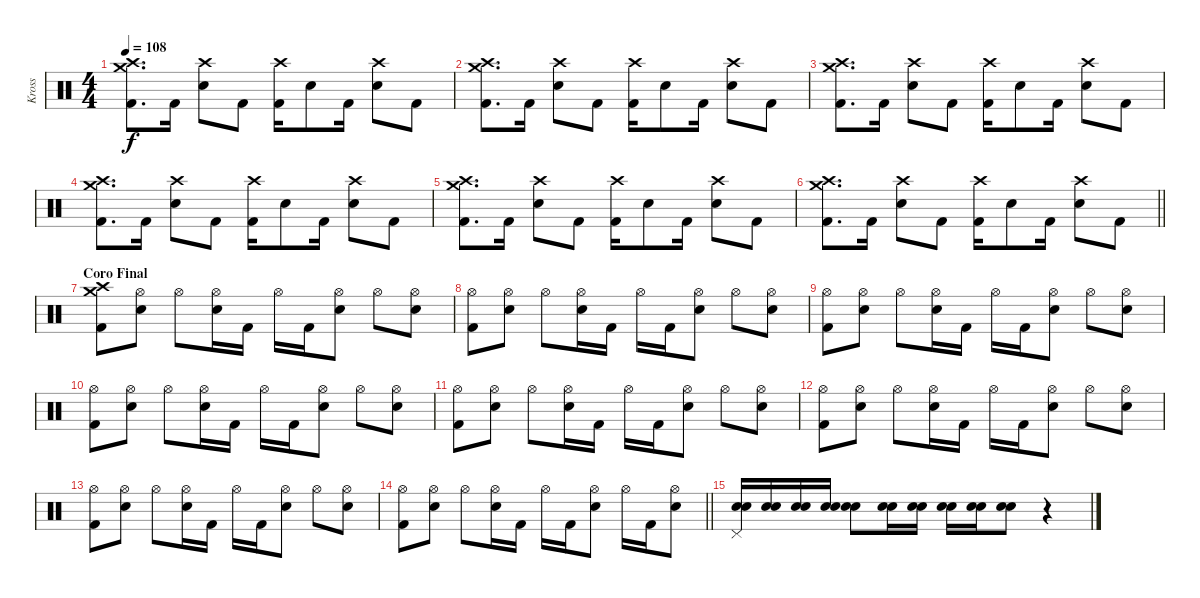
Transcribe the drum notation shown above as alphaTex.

\track ("Kross" "Kross") {instrument percussion}
\staff {score}
\articulation defaults
\ts (4 4)
\tempo 108
\clef neutral
\ks c
("Crash medium (hit)" "Crash high (hit)" "Kick (hit) 2").8{d dy f} "Kick (hit) 2".16 ("Crash high (hit)" "Electric Snare (hit)").8 "Kick (hit) 2".8 ("Crash high (hit)" "Kick (hit) 2").16 "Electric Snare (hit)".8 "Kick (hit) 2".16 ("Crash high (hit)" "Electric Snare (hit)").8 "Kick (hit) 2".8 |
("Crash medium (hit)" "Crash high (hit)" "Kick (hit) 2").8{d} "Kick (hit) 2".16 ("Crash high (hit)" "Electric Snare (hit)").8 "Kick (hit) 2".8 ("Crash high (hit)" "Kick (hit) 2").16 "Electric Snare (hit)".8 "Kick (hit) 2".16 ("Crash high (hit)" "Electric Snare (hit)").8 "Kick (hit) 2".8 |
("Crash medium (hit)" "Crash high (hit)" "Kick (hit) 2").8{d} "Kick (hit) 2".16 ("Crash high (hit)" "Electric Snare (hit)").8 "Kick (hit) 2".8 ("Crash high (hit)" "Kick (hit) 2").16 "Electric Snare (hit)".8 "Kick (hit) 2".16 ("Crash high (hit)" "Electric Snare (hit)").8 "Kick (hit) 2".8 |
("Crash medium (hit)" "Crash high (hit)" "Kick (hit) 2").8{d} "Kick (hit) 2".16 ("Crash high (hit)" "Electric Snare (hit)").8 "Kick (hit) 2".8 ("Crash high (hit)" "Kick (hit) 2").16 "Electric Snare (hit)".8 "Kick (hit) 2".16 ("Crash high (hit)" "Electric Snare (hit)").8 "Kick (hit) 2".8 |
("Crash medium (hit)" "Crash high (hit)" "Kick (hit) 2").8{d} "Kick (hit) 2".16 ("Crash high (hit)" "Electric Snare (hit)").8 "Kick (hit) 2".8 ("Crash high (hit)" "Kick (hit) 2").16 "Electric Snare (hit)".8 "Kick (hit) 2".16 ("Crash high (hit)" "Electric Snare (hit)").8 "Kick (hit) 2".8 |
\barLineRight lightlight
("Crash medium (hit)" "Crash high (hit)" "Kick (hit) 2").8{d} "Kick (hit) 2".16 ("Crash high (hit)" "Electric Snare (hit)").8 "Kick (hit) 2".8 ("Crash high (hit)" "Kick (hit) 2").16 "Electric Snare (hit)".8 "Kick (hit) 2".16 ("Crash high (hit)" "Electric Snare (hit)").8 "Kick (hit) 2".8 |
\section ("" "Coro Final")
("Crash medium (hit)" "Crash high (hit)" "Kick (hit) 2").8 ("Hi-Hat (open)" "Electric Snare (hit)").8 "Hi-Hat (open)".8 ("Hi-Hat (open)" "Electric Snare (hit)").16 "Kick (hit) 2".16 "Hi-Hat (open)".16 "Kick (hit) 2".16 ("Hi-Hat (open)" "Electric Snare (hit)").8 "Hi-Hat (open)".8 ("Hi-Hat (open)" "Electric Snare (hit)").8 |
("Hi-Hat (open)" "Kick (hit) 2").8 ("Hi-Hat (open)" "Electric Snare (hit)").8 "Hi-Hat (open)".8 ("Hi-Hat (open)" "Electric Snare (hit)").16 "Kick (hit) 2".16 "Hi-Hat (open)".16 "Kick (hit) 2".16 ("Hi-Hat (open)" "Electric Snare (hit)").8 "Hi-Hat (open)".8 ("Hi-Hat (open)" "Electric Snare (hit)").8 |
("Hi-Hat (open)" "Kick (hit) 2").8 ("Hi-Hat (open)" "Electric Snare (hit)").8 "Hi-Hat (open)".8 ("Hi-Hat (open)" "Electric Snare (hit)").16 "Kick (hit) 2".16 "Hi-Hat (open)".16 "Kick (hit) 2".16 ("Hi-Hat (open)" "Electric Snare (hit)").8 "Hi-Hat (open)".8 ("Hi-Hat (open)" "Electric Snare (hit)").8 |
("Hi-Hat (open)" "Kick (hit) 2").8 ("Hi-Hat (open)" "Electric Snare (hit)").8 "Hi-Hat (open)".8 ("Hi-Hat (open)" "Electric Snare (hit)").16 "Kick (hit) 2".16 "Hi-Hat (open)".16 "Kick (hit) 2".16 ("Hi-Hat (open)" "Electric Snare (hit)").8 "Hi-Hat (open)".8 ("Hi-Hat (open)" "Electric Snare (hit)").8 |
("Hi-Hat (open)" "Kick (hit) 2").8 ("Hi-Hat (open)" "Electric Snare (hit)").8 "Hi-Hat (open)".8 ("Hi-Hat (open)" "Electric Snare (hit)").16 "Kick (hit) 2".16 "Hi-Hat (open)".16 "Kick (hit) 2".16 ("Hi-Hat (open)" "Electric Snare (hit)").8 "Hi-Hat (open)".8 ("Hi-Hat (open)" "Electric Snare (hit)").8 |
("Hi-Hat (open)" "Kick (hit) 2").8 ("Hi-Hat (open)" "Electric Snare (hit)").8 "Hi-Hat (open)".8 ("Hi-Hat (open)" "Electric Snare (hit)").16 "Kick (hit) 2".16 "Hi-Hat (open)".16 "Kick (hit) 2".16 ("Hi-Hat (open)" "Electric Snare (hit)").8 "Hi-Hat (open)".8 ("Hi-Hat (open)" "Electric Snare (hit)").8 |
("Hi-Hat (open)" "Kick (hit) 2").8 ("Hi-Hat (open)" "Electric Snare (hit)").8 "Hi-Hat (open)".8 ("Hi-Hat (open)" "Electric Snare (hit)").16 "Kick (hit) 2".16 "Hi-Hat (open)".16 "Kick (hit) 2".16 ("Hi-Hat (open)" "Electric Snare (hit)").8 "Hi-Hat (open)".8 ("Hi-Hat (open)" "Electric Snare (hit)").8 |
\barLineRight lightlight
("Hi-Hat (open)" "Kick (hit) 2").8 ("Hi-Hat (open)" "Electric Snare (hit)").8 "Hi-Hat (open)".8 ("Hi-Hat (open)" "Electric Snare (hit)").16 "Kick (hit) 2".16 "Hi-Hat (open)".16 "Kick (hit) 2".16 ("Hi-Hat (open)" "Electric Snare (hit)").8 "Hi-Hat (open)".16 "Kick (hit) 2".16 ("Hi-Hat (open)" "Electric Snare (hit)").8 |
("Pedal Hi-Hat (hit)" "Electric Snare (hit)" "Electric Snare (hit)").16 ("Electric Snare (hit)" "Electric Snare (hit)").16 ("Electric Snare (hit)" "Electric Snare (hit)").16 ("Electric Snare (hit)" "Electric Snare (hit)").16 ("Electric Snare (hit)" "Electric Snare (hit)").8 ("Electric Snare (hit)" "Electric Snare (hit)").16 ("Electric Snare (hit)" "Electric Snare (hit)").16 ("Electric Snare (hit)" "Electric Snare (hit)").16 ("Electric Snare (hit)" "Electric Snare (hit)").16 ("Electric Snare (hit)" "Electric Snare (hit)").8 r.4
